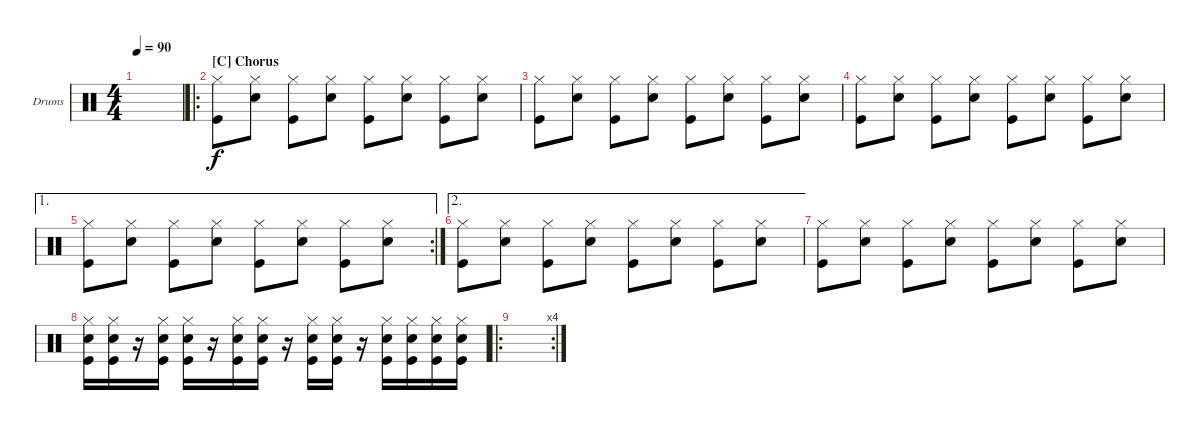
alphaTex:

\defaultSystemsLayout 4
\bracketExtendMode groupsimilarinstruments
\firstSystemTrackNameOrientation horizontal
\otherSystemsTrackNameOrientation horizontal
\track ("Drumkit" "Drums") {instrument percussion}
\staff {score}
\articulation defaults
\ts (4 4)
\tempo 90
\clef neutral
\ks c
|
\ro
\section ("C" "Chorus")
("Hi-Hat (closed)" "Kick (hit)").8 ("Hi-Hat (closed)" "Snare (hit) 2").8 ("Hi-Hat (closed)" "Kick (hit)").8 ("Hi-Hat (closed)" "Snare (hit) 2").8 ("Hi-Hat (closed)" "Kick (hit)").8 ("Hi-Hat (closed)" "Snare (hit) 2").8 ("Hi-Hat (closed)" "Kick (hit)").8 ("Hi-Hat (closed)" "Snare (hit) 2").8 |
("Hi-Hat (closed)" "Kick (hit)").8 ("Hi-Hat (closed)" "Snare (hit) 2").8 ("Hi-Hat (closed)" "Kick (hit)").8 ("Hi-Hat (closed)" "Snare (hit) 2").8 ("Hi-Hat (closed)" "Kick (hit)").8 ("Hi-Hat (closed)" "Snare (hit) 2").8 ("Hi-Hat (closed)" "Kick (hit)").8 ("Hi-Hat (closed)" "Snare (hit) 2").8 |
("Hi-Hat (closed)" "Kick (hit)").8 ("Hi-Hat (closed)" "Snare (hit) 2").8 ("Hi-Hat (closed)" "Kick (hit)").8 ("Hi-Hat (closed)" "Snare (hit) 2").8 ("Hi-Hat (closed)" "Kick (hit)").8 ("Hi-Hat (closed)" "Snare (hit) 2").8 ("Hi-Hat (closed)" "Kick (hit)").8 ("Hi-Hat (closed)" "Snare (hit) 2").8 |
\ae 1
\rc 2
("Hi-Hat (closed)" "Kick (hit)").8 ("Hi-Hat (closed)" "Snare (hit) 2").8 ("Hi-Hat (closed)" "Kick (hit)").8 ("Hi-Hat (closed)" "Snare (hit) 2").8 ("Hi-Hat (closed)" "Kick (hit)").8 ("Hi-Hat (closed)" "Snare (hit) 2").8 ("Hi-Hat (closed)" "Kick (hit)").8 ("Hi-Hat (closed)" "Snare (hit) 2").8 |
\ae 2
("Hi-Hat (closed)" "Kick (hit)").8 ("Hi-Hat (closed)" "Snare (hit) 2").8 ("Hi-Hat (closed)" "Kick (hit)").8 ("Hi-Hat (closed)" "Snare (hit) 2").8 ("Hi-Hat (closed)" "Kick (hit)").8 ("Hi-Hat (closed)" "Snare (hit) 2").8 ("Hi-Hat (closed)" "Kick (hit)").8 ("Hi-Hat (closed)" "Snare (hit) 2").8 |
("Hi-Hat (closed)" "Kick (hit)").8 ("Hi-Hat (closed)" "Snare (hit) 2").8 ("Hi-Hat (closed)" "Kick (hit)").8 ("Hi-Hat (closed)" "Snare (hit) 2").8 ("Hi-Hat (closed)" "Kick (hit)").8 ("Hi-Hat (closed)" "Snare (hit) 2").8 ("Hi-Hat (closed)" "Kick (hit)").8 ("Hi-Hat (closed)" "Snare (hit) 2").8 |
("Snare (hit) 2" "Hi-Hat (closed)" "Kick (hit)").16 ("Snare (hit) 2" "Hi-Hat (closed)" "Kick (hit)").16 r.16 ("Snare (hit) 2" "Hi-Hat (closed)" "Kick (hit)").16 ("Snare (hit) 2" "Hi-Hat (closed)" "Kick (hit)").16 r.16 ("Snare (hit) 2" "Hi-Hat (closed)" "Kick (hit)").16 ("Snare (hit) 2" "Hi-Hat (closed)" "Kick (hit)").16 r.16 ("Snare (hit) 2" "Hi-Hat (closed)" "Kick (hit)").16 ("Snare (hit) 2" "Hi-Hat (closed)" "Kick (hit)").16 r.16 ("Snare (hit) 2" "Hi-Hat (closed)" "Kick (hit)").16 ("Snare (hit) 2" "Hi-Hat (closed)" "Kick (hit)").16 ("Snare (hit) 2" "Hi-Hat (closed)" "Kick (hit)").16 ("Snare (hit) 2" "Hi-Hat (closed)" "Kick (hit)").16 |
\ro
\rc 4
